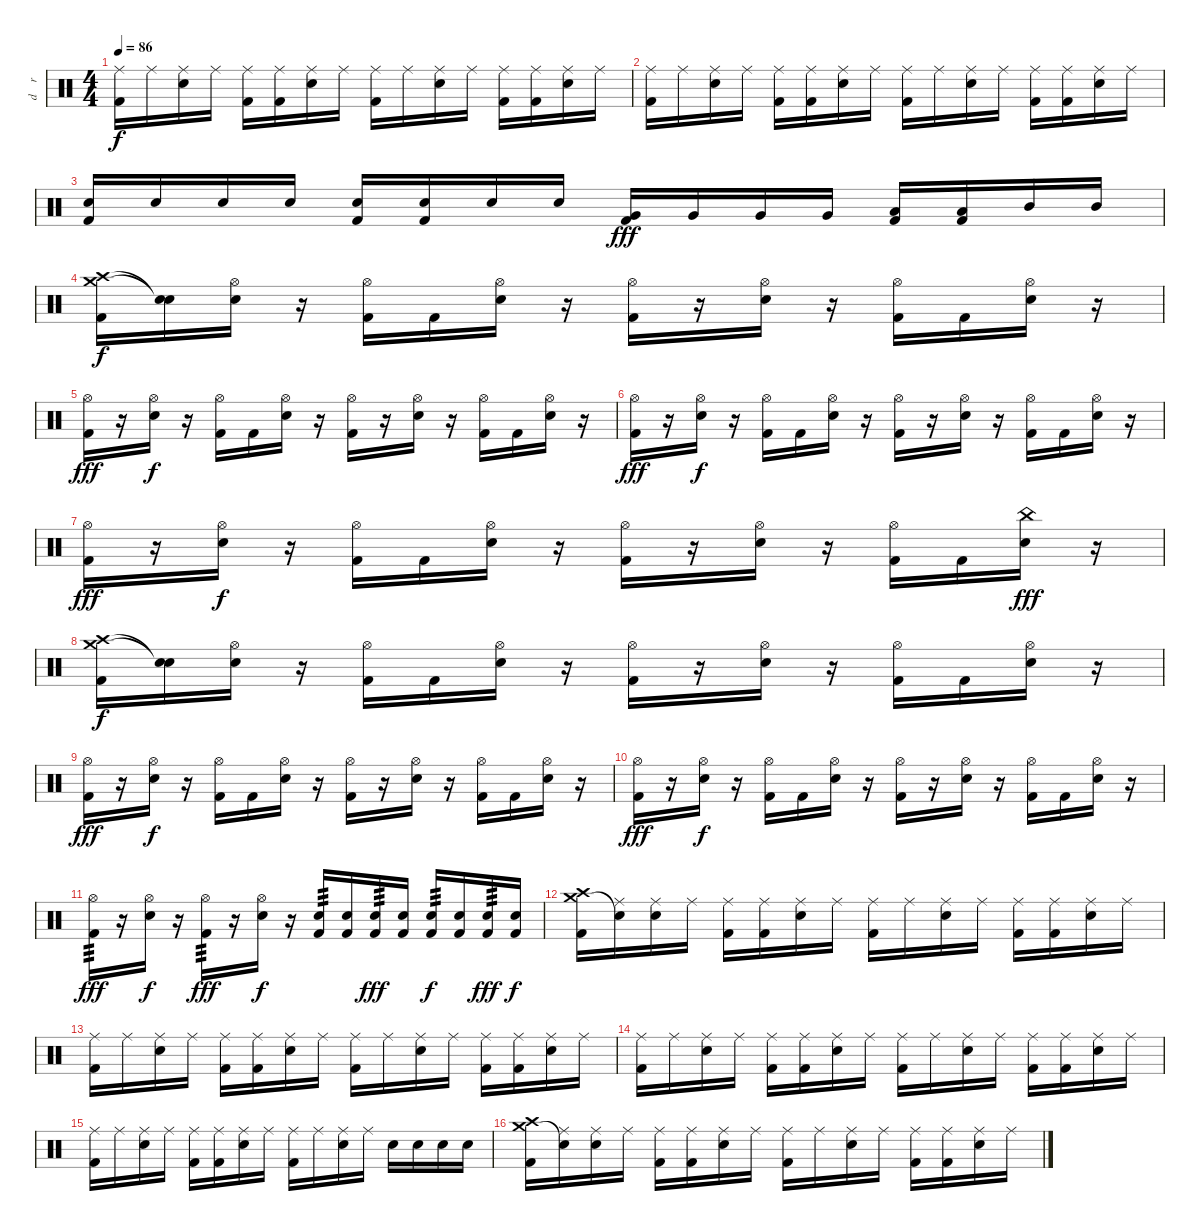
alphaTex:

\track ("d    r     u    m    s" "d    r    ") {instrument percussion}
\staff {score}
\articulation defaults
\ts (4 4)
\tempo 86
\clef neutral
\ks c
("Ride (middle)" "Kick (hit) 2").16{dy f} "Ride (middle)".16 ("Ride (middle)" "Electric Snare (hit)").16 "Ride (middle)".16 ("Ride (middle)" "Kick (hit) 2").16 ("Ride (middle)" "Kick (hit) 2").16 ("Ride (middle)" "Electric Snare (hit)").16 "Ride (middle)".16 ("Ride (middle)" "Kick (hit) 2").16 "Ride (middle)".16 ("Ride (middle)" "Electric Snare (hit)").16 "Ride (middle)".16 ("Ride (middle)" "Kick (hit) 2").16 ("Ride (middle)" "Kick (hit) 2").16 ("Ride (middle)" "Electric Snare (hit)").16 "Ride (middle)".16 |
("Ride (middle)" "Kick (hit) 2").16 "Ride (middle)".16 ("Ride (middle)" "Electric Snare (hit)").16 "Ride (middle)".16 ("Ride (middle)" "Kick (hit) 2").16 ("Ride (middle)" "Kick (hit) 2").16 ("Ride (middle)" "Electric Snare (hit)").16 "Ride (middle)".16 ("Ride (middle)" "Kick (hit) 2").16 "Ride (middle)".16 ("Ride (middle)" "Electric Snare (hit)").16 "Ride (middle)".16 ("Ride (middle)" "Kick (hit) 2").16 ("Ride (middle)" "Kick (hit) 2").16 ("Ride (middle)" "Electric Snare (hit)").16 "Ride (middle)".16 |
("Electric Snare (hit)" "Kick (hit) 2").16 "Electric Snare (hit)".16 "Electric Snare (hit)".16 "Electric Snare (hit)".16 ("Electric Snare (hit)" "Kick (hit) 2").16 ("Electric Snare (hit)" "Kick (hit) 2").16 "Electric Snare (hit)".16 "Electric Snare (hit)".16 ("Very Low Tom (hit)" "Kick (hit) 2").16{dy fff} "Very Low Tom (hit)".16 "Very Low Tom (hit)".16 "Very Low Tom (hit)".16 ("Low Tom (hit)" "Kick (hit) 2").16 ("Low Tom (hit)" "Kick (hit) 2").16 "Mid Tom (hit)".16 "Mid Tom (hit)".16 |
("Crash high (hit)" "Crash medium (hit)" "Kick (hit) 2").16{dy f} ("Snare (hit)"{t} "Snare (hit)"{t}).16 ("Hi-Hat (open)" "Electric Snare (hit)").16 r.16 ("Hi-Hat (open)" "Kick (hit) 2").16 "Kick (hit) 2".16 ("Hi-Hat (open)" "Electric Snare (hit)").16 r.16 ("Hi-Hat (open)" "Kick (hit) 2").16 r.16 ("Hi-Hat (open)" "Electric Snare (hit)").16 r.16 ("Hi-Hat (open)" "Kick (hit) 2").16 "Kick (hit) 2".16 ("Hi-Hat (open)" "Electric Snare (hit)").16 r.16 |
("Hi-Hat (open)" "Kick (hit) 2").16{dy fff} r.16 ("Hi-Hat (open)" "Electric Snare (hit)").16{dy f} r.16 ("Hi-Hat (open)" "Kick (hit) 2").16 "Kick (hit) 2".16 ("Hi-Hat (open)" "Electric Snare (hit)").16 r.16 ("Hi-Hat (open)" "Kick (hit) 2").16 r.16 ("Hi-Hat (open)" "Electric Snare (hit)").16 r.16 ("Hi-Hat (open)" "Kick (hit) 2").16 "Kick (hit) 2".16 ("Hi-Hat (open)" "Electric Snare (hit)").16 r.16 |
("Hi-Hat (open)" "Kick (hit) 2").16{dy fff} r.16 ("Hi-Hat (open)" "Electric Snare (hit)").16{dy f} r.16 ("Hi-Hat (open)" "Kick (hit) 2").16 "Kick (hit) 2".16 ("Hi-Hat (open)" "Electric Snare (hit)").16 r.16 ("Hi-Hat (open)" "Kick (hit) 2").16 r.16 ("Hi-Hat (open)" "Electric Snare (hit)").16 r.16 ("Hi-Hat (open)" "Kick (hit) 2").16 "Kick (hit) 2".16 ("Hi-Hat (open)" "Electric Snare (hit)").16 r.16 |
("Hi-Hat (open)" "Kick (hit) 2").16{dy fff} r.16 ("Hi-Hat (open)" "Electric Snare (hit)").16{dy f} r.16 ("Hi-Hat (open)" "Kick (hit) 2").16 "Kick (hit) 2".16 ("Hi-Hat (open)" "Electric Snare (hit)").16 r.16 ("Hi-Hat (open)" "Kick (hit) 2").16 r.16 ("Hi-Hat (open)" "Electric Snare (hit)").16 r.16 ("Hi-Hat (open)" "Kick (hit) 2").16 "Kick (hit) 2".16 ("China (hit)" "Electric Snare (hit)").16{dy fff} r.16 |
("Crash high (hit)" "Crash medium (hit)" "Kick (hit) 2").16{dy f} ("Snare (hit)"{t} "Snare (hit)"{t}).16 ("Hi-Hat (open)" "Electric Snare (hit)").16 r.16 ("Hi-Hat (open)" "Kick (hit) 2").16 "Kick (hit) 2".16 ("Hi-Hat (open)" "Electric Snare (hit)").16 r.16 ("Hi-Hat (open)" "Kick (hit) 2").16 r.16 ("Hi-Hat (open)" "Electric Snare (hit)").16 r.16 ("Hi-Hat (open)" "Kick (hit) 2").16 "Kick (hit) 2".16 ("Hi-Hat (open)" "Electric Snare (hit)").16 r.16 |
("Hi-Hat (open)" "Kick (hit) 2").16{dy fff} r.16 ("Hi-Hat (open)" "Electric Snare (hit)").16{dy f} r.16 ("Hi-Hat (open)" "Kick (hit) 2").16 "Kick (hit) 2".16 ("Hi-Hat (open)" "Electric Snare (hit)").16 r.16 ("Hi-Hat (open)" "Kick (hit) 2").16 r.16 ("Hi-Hat (open)" "Electric Snare (hit)").16 r.16 ("Hi-Hat (open)" "Kick (hit) 2").16 "Kick (hit) 2".16 ("Hi-Hat (open)" "Electric Snare (hit)").16 r.16 |
("Hi-Hat (open)" "Kick (hit) 2").16{dy fff} r.16 ("Hi-Hat (open)" "Electric Snare (hit)").16{dy f} r.16 ("Hi-Hat (open)" "Kick (hit) 2").16 "Kick (hit) 2".16 ("Hi-Hat (open)" "Electric Snare (hit)").16 r.16 ("Hi-Hat (open)" "Kick (hit) 2").16 r.16 ("Hi-Hat (open)" "Electric Snare (hit)").16 r.16 ("Hi-Hat (open)" "Kick (hit) 2").16 "Kick (hit) 2".16 ("Hi-Hat (open)" "Electric Snare (hit)").16 r.16 |
("Hi-Hat (open)" "Kick (hit) 2").16{tp 3 dy fff} r.16 ("Hi-Hat (open)" "Electric Snare (hit)").16{dy f} r.16 ("Hi-Hat (open)" "Kick (hit) 2").16{tp 3 dy fff} r.16 ("Hi-Hat (open)" "Electric Snare (hit)").16{dy f} r.16 ("Electric Snare (hit)" "Kick (hit) 2").16{tp 3} ("Electric Snare (hit)" "Kick (hit) 2").16 ("Electric Snare (hit)" "Kick (hit) 2").16{tp 3 dy fff} ("Electric Snare (hit)" "Kick (hit) 2").16 ("Electric Snare (hit)" "Kick (hit) 2").16{tp 3 dy f} ("Electric Snare (hit)" "Kick (hit) 2").16 ("Electric Snare (hit)" "Kick (hit) 2").16{tp 3 dy fff} ("Electric Snare (hit)" "Kick (hit) 2").16{dy f} |
("Crash high (hit)" "Crash medium (hit)" "Kick (hit) 2").16 ("Ride (middle)" "Snare (hit)"{t}).16 ("Ride (middle)" "Electric Snare (hit)").16 "Ride (middle)".16 ("Ride (middle)" "Kick (hit) 2").16 ("Ride (middle)" "Kick (hit) 2").16 ("Ride (middle)" "Electric Snare (hit)").16 "Ride (middle)".16 ("Ride (middle)" "Kick (hit) 2").16 "Ride (middle)".16 ("Ride (middle)" "Electric Snare (hit)").16 "Ride (middle)".16 ("Ride (middle)" "Kick (hit) 2").16 ("Ride (middle)" "Kick (hit) 2").16 ("Ride (middle)" "Electric Snare (hit)").16 "Ride (middle)".16 |
("Ride (middle)" "Kick (hit) 2").16 "Ride (middle)".16 ("Ride (middle)" "Electric Snare (hit)").16 "Ride (middle)".16 ("Ride (middle)" "Kick (hit) 2").16 ("Ride (middle)" "Kick (hit) 2").16 ("Ride (middle)" "Electric Snare (hit)").16 "Ride (middle)".16 ("Ride (middle)" "Kick (hit) 2").16 "Ride (middle)".16 ("Ride (middle)" "Electric Snare (hit)").16 "Ride (middle)".16 ("Ride (middle)" "Kick (hit) 2").16 ("Ride (middle)" "Kick (hit) 2").16 ("Ride (middle)" "Electric Snare (hit)").16 "Ride (middle)".16 |
("Ride (middle)" "Kick (hit) 2").16 "Ride (middle)".16 ("Ride (middle)" "Electric Snare (hit)").16 "Ride (middle)".16 ("Ride (middle)" "Kick (hit) 2").16 ("Ride (middle)" "Kick (hit) 2").16 ("Ride (middle)" "Electric Snare (hit)").16 "Ride (middle)".16 ("Ride (middle)" "Kick (hit) 2").16 "Ride (middle)".16 ("Ride (middle)" "Electric Snare (hit)").16 "Ride (middle)".16 ("Ride (middle)" "Kick (hit) 2").16 ("Ride (middle)" "Kick (hit) 2").16 ("Ride (middle)" "Electric Snare (hit)").16 "Ride (middle)".16 |
("Ride (middle)" "Kick (hit) 2").16 "Ride (middle)".16 ("Ride (middle)" "Electric Snare (hit)").16 "Ride (middle)".16 ("Ride (middle)" "Kick (hit) 2").16 ("Ride (middle)" "Kick (hit) 2").16 ("Ride (middle)" "Electric Snare (hit)").16 "Ride (middle)".16 ("Ride (middle)" "Kick (hit) 2").16 "Ride (middle)".16 ("Ride (middle)" "Electric Snare (hit)").16 "Ride (middle)".16 "Electric Snare (hit)".16 "Electric Snare (hit)".16 "Electric Snare (hit)".16 "Electric Snare (hit)".16 |
("Crash high (hit)" "Crash medium (hit)" "Kick (hit) 2").16 ("Ride (middle)" "Snare (hit)"{t}).16 ("Ride (middle)" "Electric Snare (hit)").16 "Ride (middle)".16 ("Ride (middle)" "Kick (hit) 2").16 ("Ride (middle)" "Kick (hit) 2").16 ("Ride (middle)" "Electric Snare (hit)").16 "Ride (middle)".16 ("Ride (middle)" "Kick (hit) 2").16 "Ride (middle)".16 ("Ride (middle)" "Electric Snare (hit)").16 "Ride (middle)".16 ("Ride (middle)" "Kick (hit) 2").16 ("Ride (middle)" "Kick (hit) 2").16 ("Ride (middle)" "Electric Snare (hit)").16 "Ride (middle)".16
